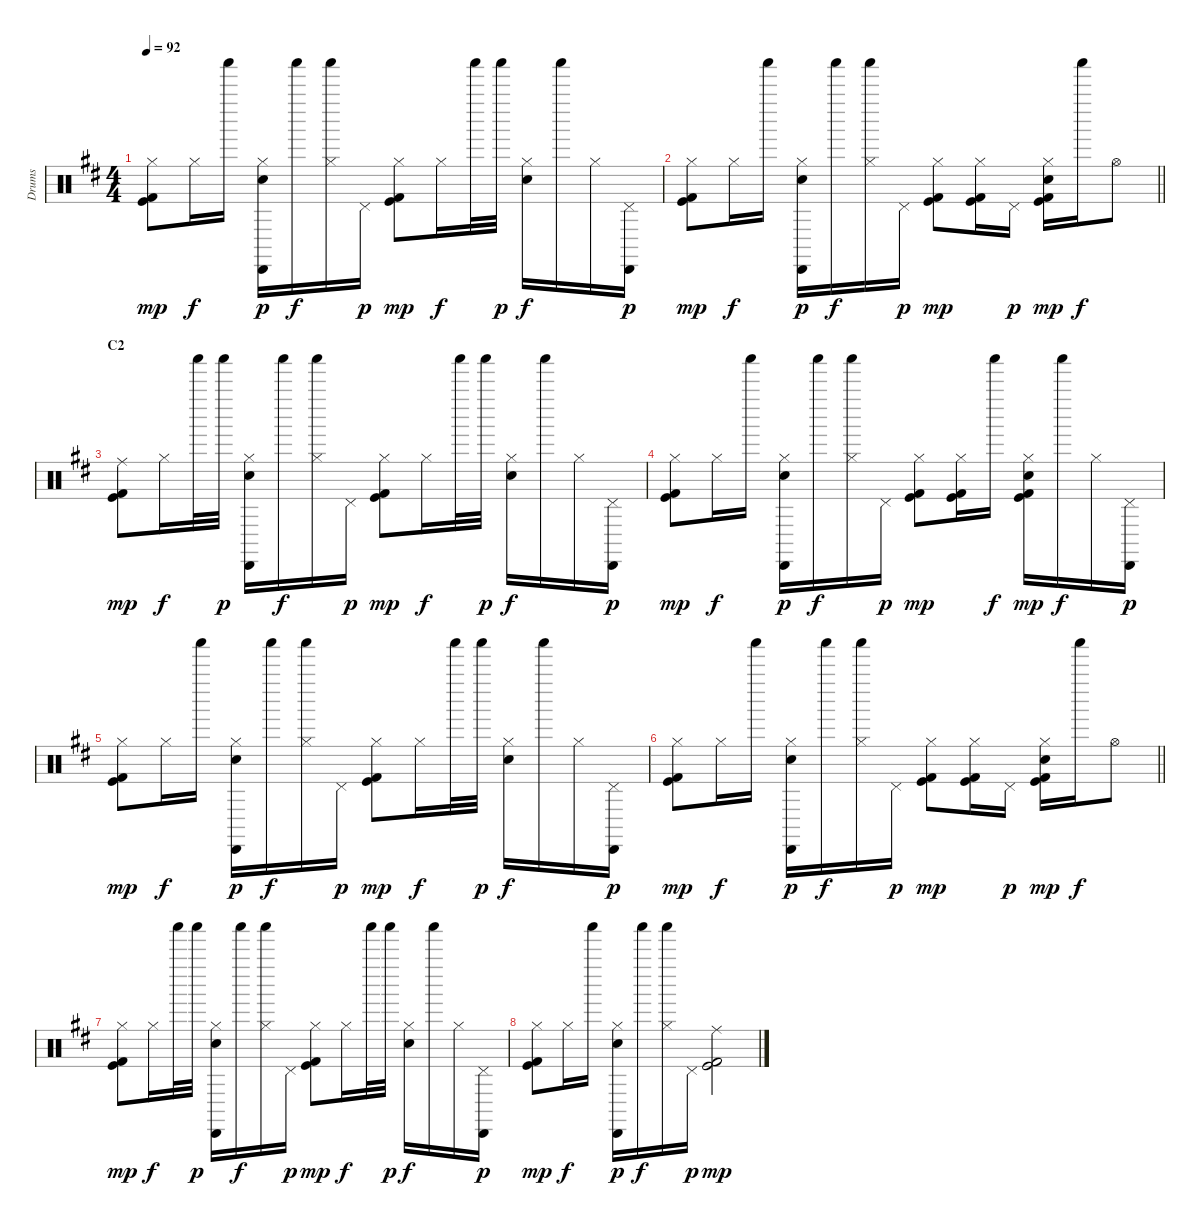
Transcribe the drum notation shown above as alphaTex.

\track ("Drums" "Drums") {instrument percussion}
\staff {score}
\articulation defaults
\ts (4 4)
\tempo 92
\clef neutral
\ks d
("Hi-Hat (closed)" "Kick (hit) 2" "Kick (hit)").8{dy mp} "Hi-Hat (closed)".16{dy f} "Shaker (hit)".16 ("Cabasa (hit)" "Hi-Hat (closed)" "Snare (hit) 2").16{dy p} "Shaker (hit)".16{dy f} ("Shaker (hit)" "Hi-Hat (closed)").16 "Pedal Hi-Hat (hit)".16{dy p} ("Hi-Hat (closed)" "Kick (hit) 2" "Kick (hit)").8{dy mp} "Hi-Hat (closed)".16{dy f} "Shaker (hit)".32 "Shaker (hit)".32{dy p} ("Hi-Hat (closed)" "Snare (hit) 2").16{dy f} "Shaker (hit)".16 "Hi-Hat (closed)".16 ("Cabasa (hit)" "Pedal Hi-Hat (hit)").16{dy p} |
\barLineRight lightlight
("Hi-Hat (closed)" "Kick (hit) 2" "Kick (hit)").8{dy mp} "Hi-Hat (closed)".16{dy f} "Shaker (hit)".16 ("Cabasa (hit)" "Hi-Hat (closed)" "Snare (hit) 2").16{dy p} "Shaker (hit)".16{dy f} ("Shaker (hit)" "Hi-Hat (closed)").16 "Pedal Hi-Hat (hit)".16{dy p} ("Hi-Hat (closed)" "Kick (hit) 2" "Kick (hit)").8{dy mp} ("Hi-Hat (closed)" "Kick (hit) 2" "Kick (hit)").16 "Pedal Hi-Hat (hit)".16{dy p} ("Hi-Hat (closed)" "Snare (hit) 2" "Kick (hit) 2" "Kick (hit)").16{dy mp} "Shaker (hit)".16{dy f} "Hi-Hat (open)".8 |
\section ("" "C2")
("Ride (middle)" "Kick (hit) 2" "Kick (hit)").8{dy mp} "Hi-Hat (closed)".16{dy f} "Shaker (hit)".32 "Shaker (hit)".32{dy p} ("Cabasa (hit)" "Hi-Hat (closed)" "Snare (hit) 2").16 "Shaker (hit)".16{dy f} ("Shaker (hit)" "Hi-Hat (closed)").16 "Pedal Hi-Hat (hit)".16{dy p} ("Hi-Hat (closed)" "Kick (hit) 2" "Kick (hit)").8{dy mp} "Hi-Hat (closed)".16{dy f} "Shaker (hit)".32 "Shaker (hit)".32{dy p} ("Hi-Hat (closed)" "Snare (hit) 2").16{dy f} "Shaker (hit)".16 "Hi-Hat (closed)".16 ("Cabasa (hit)" "Pedal Hi-Hat (hit)").16{dy p} |
("Hi-Hat (closed)" "Kick (hit) 2" "Kick (hit)").8{dy mp} "Hi-Hat (closed)".16{dy f} "Shaker (hit)".16 ("Cabasa (hit)" "Hi-Hat (closed)" "Snare (hit) 2").16{dy p} "Shaker (hit)".16{dy f} ("Shaker (hit)" "Hi-Hat (closed)").16 "Pedal Hi-Hat (hit)".16{dy p} ("Hi-Hat (closed)" "Kick (hit) 2" "Kick (hit)").8{dy mp} ("Hi-Hat (closed)" "Kick (hit) 2" "Kick (hit)").16 "Shaker (hit)".16{dy f} ("Hi-Hat (closed)" "Snare (hit) 2" "Kick (hit) 2" "Kick (hit)").16{dy mp} "Shaker (hit)".16{dy f} "Hi-Hat (closed)".16 ("Cabasa (hit)" "Pedal Hi-Hat (hit)").16{dy p} |
("Hi-Hat (closed)" "Kick (hit) 2" "Kick (hit)").8{dy mp} "Hi-Hat (closed)".16{dy f} "Shaker (hit)".16 ("Cabasa (hit)" "Hi-Hat (closed)" "Snare (hit) 2").16{dy p} "Shaker (hit)".16{dy f} ("Shaker (hit)" "Hi-Hat (closed)").16 "Pedal Hi-Hat (hit)".16{dy p} ("Hi-Hat (closed)" "Kick (hit) 2" "Kick (hit)").8{dy mp} "Hi-Hat (closed)".16{dy f} "Shaker (hit)".32 "Shaker (hit)".32{dy p} ("Hi-Hat (closed)" "Snare (hit) 2").16{dy f} "Shaker (hit)".16 "Hi-Hat (closed)".16 ("Cabasa (hit)" "Pedal Hi-Hat (hit)").16{dy p} |
\barLineRight lightlight
("Hi-Hat (closed)" "Kick (hit) 2" "Kick (hit)").8{dy mp} "Hi-Hat (closed)".16{dy f} "Shaker (hit)".16 ("Cabasa (hit)" "Hi-Hat (closed)" "Snare (hit) 2").16{dy p} "Shaker (hit)".16{dy f} ("Shaker (hit)" "Hi-Hat (closed)").16 "Pedal Hi-Hat (hit)".16{dy p} ("Hi-Hat (closed)" "Kick (hit) 2" "Kick (hit)").8{dy mp} ("Hi-Hat (closed)" "Kick (hit) 2" "Kick (hit)").16 "Pedal Hi-Hat (hit)".16{dy p} ("Hi-Hat (closed)" "Snare (hit) 2" "Kick (hit) 2" "Kick (hit)").16{dy mp} "Shaker (hit)".16{dy f} "Hi-Hat (open)".8 |
("Hi-Hat (closed)" "Kick (hit) 2" "Kick (hit)").8{dy mp} "Hi-Hat (closed)".16{dy f} "Shaker (hit)".32 "Shaker (hit)".32{dy p} ("Cabasa (hit)" "Hi-Hat (closed)" "Snare (hit) 2").16 "Shaker (hit)".16{dy f} ("Shaker (hit)" "Hi-Hat (closed)").16 "Pedal Hi-Hat (hit)".16{dy p} ("Hi-Hat (closed)" "Kick (hit) 2" "Kick (hit)").8{dy mp} "Hi-Hat (closed)".16{dy f} "Shaker (hit)".32 "Shaker (hit)".32{dy p} ("Hi-Hat (closed)" "Snare (hit) 2").16{dy f} "Shaker (hit)".16 "Hi-Hat (closed)".16 ("Cabasa (hit)" "Pedal Hi-Hat (hit)").16{dy p} |
("Hi-Hat (closed)" "Kick (hit) 2" "Kick (hit)").8{dy mp} "Hi-Hat (closed)".16{dy f} "Shaker (hit)".16 ("Cabasa (hit)" "Hi-Hat (closed)" "Snare (hit) 2").16{dy p} "Shaker (hit)".16{dy f} ("Shaker (hit)" "Hi-Hat (closed)").16 "Pedal Hi-Hat (hit)".16{dy p} ("Ride (middle)" "Kick (hit) 2" "Kick (hit)").2{dy mp}
